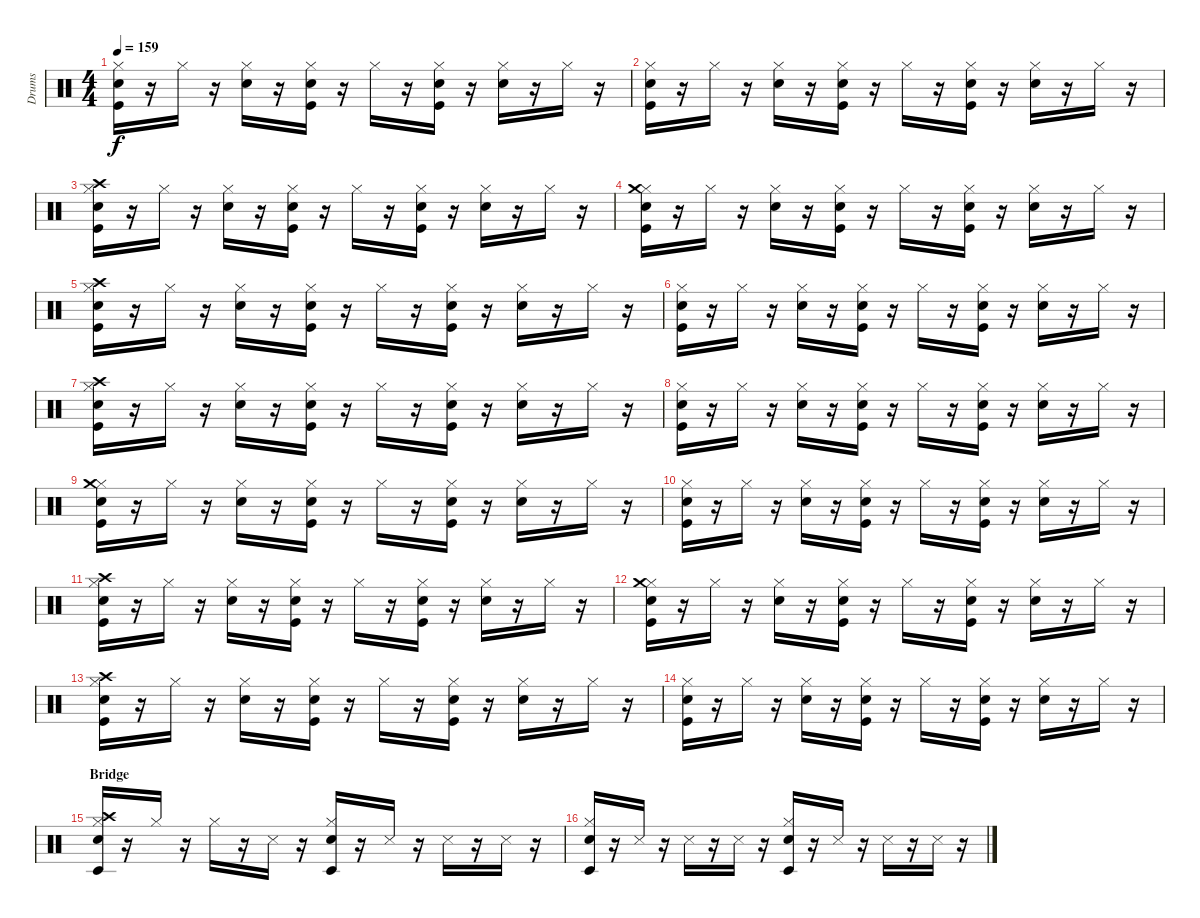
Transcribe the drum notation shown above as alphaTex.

\track ("Drums" "Drums") {instrument percussion}
\staff {score}
\articulation defaults
\ts (4 4)
\tempo 159
\clef neutral
\ks c
("Hi-Hat (closed)" "Snare (hit) 2" "Kick (hit)").16{dy f} r.16 "Hi-Hat (closed)".16 r.16 ("Hi-Hat (closed)" "Snare (hit) 2").16 r.16 ("Hi-Hat (closed)" "Snare (hit) 2" "Kick (hit)").16 r.16 "Hi-Hat (closed)".16 r.16 ("Hi-Hat (closed)" "Snare (hit) 2" "Kick (hit)").16 r.16 ("Hi-Hat (closed)" "Snare (hit) 2").16 r.16 "Hi-Hat (closed)".16 r.16 |
("Hi-Hat (closed)" "Snare (hit) 2" "Kick (hit)").16 r.16 "Hi-Hat (closed)".16 r.16 ("Hi-Hat (closed)" "Snare (hit) 2").16 r.16 ("Hi-Hat (closed)" "Snare (hit) 2" "Kick (hit)").16 r.16 "Hi-Hat (closed)".16 r.16 ("Hi-Hat (closed)" "Snare (hit) 2" "Kick (hit)").16 r.16 ("Hi-Hat (closed)" "Snare (hit) 2").16 r.16 "Hi-Hat (closed)".16 r.16 |
("Hi-Hat (closed)" "Crash high (hit)" "Snare (hit) 2" "Kick (hit)").16 r.16 "Hi-Hat (closed)".16 r.16 ("Hi-Hat (closed)" "Snare (hit) 2").16 r.16 ("Hi-Hat (closed)" "Snare (hit) 2" "Kick (hit)").16 r.16 "Hi-Hat (closed)".16 r.16 ("Hi-Hat (closed)" "Snare (hit) 2" "Kick (hit)").16 r.16 ("Hi-Hat (closed)" "Snare (hit) 2").16 r.16 "Hi-Hat (closed)".16 r.16 |
("Hi-Hat (closed)" "Crash medium (hit)" "Snare (hit) 2" "Kick (hit)").16 r.16 "Hi-Hat (closed)".16 r.16 ("Hi-Hat (closed)" "Snare (hit) 2").16 r.16 ("Hi-Hat (closed)" "Snare (hit) 2" "Kick (hit)").16 r.16 "Hi-Hat (closed)".16 r.16 ("Hi-Hat (closed)" "Snare (hit) 2" "Kick (hit)").16 r.16 ("Hi-Hat (closed)" "Snare (hit) 2").16 r.16 "Hi-Hat (closed)".16 r.16 |
("Hi-Hat (closed)" "Crash high (hit)" "Snare (hit) 2" "Kick (hit)").16 r.16 "Hi-Hat (closed)".16 r.16 ("Hi-Hat (closed)" "Snare (hit) 2").16 r.16 ("Hi-Hat (closed)" "Snare (hit) 2" "Kick (hit)").16 r.16 "Hi-Hat (closed)".16 r.16 ("Hi-Hat (closed)" "Snare (hit) 2" "Kick (hit)").16 r.16 ("Hi-Hat (closed)" "Snare (hit) 2").16 r.16 "Hi-Hat (closed)".16 r.16 |
("Hi-Hat (closed)" "Snare (hit) 2" "Kick (hit)").16 r.16 "Hi-Hat (closed)".16 r.16 ("Hi-Hat (closed)" "Snare (hit) 2").16 r.16 ("Hi-Hat (closed)" "Snare (hit) 2" "Kick (hit)").16 r.16 "Hi-Hat (closed)".16 r.16 ("Hi-Hat (closed)" "Snare (hit) 2" "Kick (hit)").16 r.16 ("Hi-Hat (closed)" "Snare (hit) 2").16 r.16 "Hi-Hat (closed)".16 r.16 |
("Hi-Hat (closed)" "Crash high (hit)" "Snare (hit) 2" "Kick (hit)").16 r.16 "Hi-Hat (closed)".16 r.16 ("Hi-Hat (closed)" "Snare (hit) 2").16 r.16 ("Hi-Hat (closed)" "Snare (hit) 2" "Kick (hit)").16 r.16 "Hi-Hat (closed)".16 r.16 ("Hi-Hat (closed)" "Snare (hit) 2" "Kick (hit)").16 r.16 ("Hi-Hat (closed)" "Snare (hit) 2").16 r.16 "Hi-Hat (closed)".16 r.16 |
("Hi-Hat (closed)" "Snare (hit) 2" "Kick (hit)").16 r.16 "Hi-Hat (closed)".16 r.16 ("Hi-Hat (closed)" "Snare (hit) 2").16 r.16 ("Hi-Hat (closed)" "Snare (hit) 2" "Kick (hit)").16 r.16 "Hi-Hat (closed)".16 r.16 ("Hi-Hat (closed)" "Snare (hit) 2" "Kick (hit)").16 r.16 ("Hi-Hat (closed)" "Snare (hit) 2").16 r.16 "Hi-Hat (closed)".16 r.16 |
("Hi-Hat (closed)" "Crash medium (hit)" "Snare (hit) 2" "Kick (hit)").16 r.16 "Hi-Hat (closed)".16 r.16 ("Hi-Hat (closed)" "Snare (hit) 2").16 r.16 ("Hi-Hat (closed)" "Snare (hit) 2" "Kick (hit)").16 r.16 "Hi-Hat (closed)".16 r.16 ("Hi-Hat (closed)" "Snare (hit) 2" "Kick (hit)").16 r.16 ("Hi-Hat (closed)" "Snare (hit) 2").16 r.16 "Hi-Hat (closed)".16 r.16 |
("Hi-Hat (closed)" "Snare (hit) 2" "Kick (hit)").16 r.16 "Hi-Hat (closed)".16 r.16 ("Hi-Hat (closed)" "Snare (hit) 2").16 r.16 ("Hi-Hat (closed)" "Snare (hit) 2" "Kick (hit)").16 r.16 "Hi-Hat (closed)".16 r.16 ("Hi-Hat (closed)" "Snare (hit) 2" "Kick (hit)").16 r.16 ("Hi-Hat (closed)" "Snare (hit) 2").16 r.16 "Hi-Hat (closed)".16 r.16 |
("Hi-Hat (closed)" "Crash high (hit)" "Snare (hit) 2" "Kick (hit)").16 r.16 "Hi-Hat (closed)".16 r.16 ("Hi-Hat (closed)" "Snare (hit) 2").16 r.16 ("Hi-Hat (closed)" "Snare (hit) 2" "Kick (hit)").16 r.16 "Hi-Hat (closed)".16 r.16 ("Hi-Hat (closed)" "Snare (hit) 2" "Kick (hit)").16 r.16 ("Hi-Hat (closed)" "Snare (hit) 2").16 r.16 "Hi-Hat (closed)".16 r.16 |
("Hi-Hat (closed)" "Crash medium (hit)" "Snare (hit) 2" "Kick (hit)").16 r.16 "Hi-Hat (closed)".16 r.16 ("Hi-Hat (closed)" "Snare (hit) 2").16 r.16 ("Hi-Hat (closed)" "Snare (hit) 2" "Kick (hit)").16 r.16 "Hi-Hat (closed)".16 r.16 ("Hi-Hat (closed)" "Snare (hit) 2" "Kick (hit)").16 r.16 ("Hi-Hat (closed)" "Snare (hit) 2").16 r.16 "Hi-Hat (closed)".16 r.16 |
("Hi-Hat (closed)" "Crash high (hit)" "Snare (hit) 2" "Kick (hit)").16 r.16 "Hi-Hat (closed)".16 r.16 ("Hi-Hat (closed)" "Snare (hit) 2").16 r.16 ("Hi-Hat (closed)" "Snare (hit) 2" "Kick (hit)").16 r.16 "Hi-Hat (closed)".16 r.16 ("Hi-Hat (closed)" "Snare (hit) 2" "Kick (hit)").16 r.16 ("Hi-Hat (closed)" "Snare (hit) 2").16 r.16 "Hi-Hat (closed)".16 r.16 |
("Hi-Hat (closed)" "Snare (hit) 2" "Kick (hit)").16 r.16 "Hi-Hat (closed)".16 r.16 ("Hi-Hat (closed)" "Snare (hit) 2").16 r.16 ("Hi-Hat (closed)" "Snare (hit) 2" "Kick (hit)").16 r.16 "Hi-Hat (closed)".16 r.16 ("Hi-Hat (closed)" "Snare (hit) 2" "Kick (hit)").16 r.16 ("Hi-Hat (closed)" "Snare (hit) 2").16 r.16 "Hi-Hat (closed)".16 r.16 |
\section ("" "Bridge")
("Hi-Hat (closed)" "Timbale low (hit)" "Snare (hit) 2" "Crash high (hit)").16 r.16 "Hi-Hat (closed)".16 r.16 "Hi-Hat (closed)".16 r.16 "Snare (side stick) 3".16 r.16 ("Hi-Hat (closed)" "Timbale low (hit)" "Snare (hit) 2").16 r.16 "Snare (side stick) 3".16 r.16 "Snare (side stick) 3".16 r.16 "Snare (side stick) 3".16 r.16 |
("Hi-Hat (closed)" "Timbale low (hit)" "Snare (hit) 2").16 r.16 "Snare (side stick) 3".16 r.16 "Snare (side stick) 3".16 r.16 "Snare (side stick) 3".16 r.16 ("Hi-Hat (closed)" "Timbale low (hit)" "Snare (hit) 2").16 r.16 "Snare (side stick) 3".16 r.16 "Snare (side stick) 3".16 r.16 "Snare (side stick) 3".16 r.16
